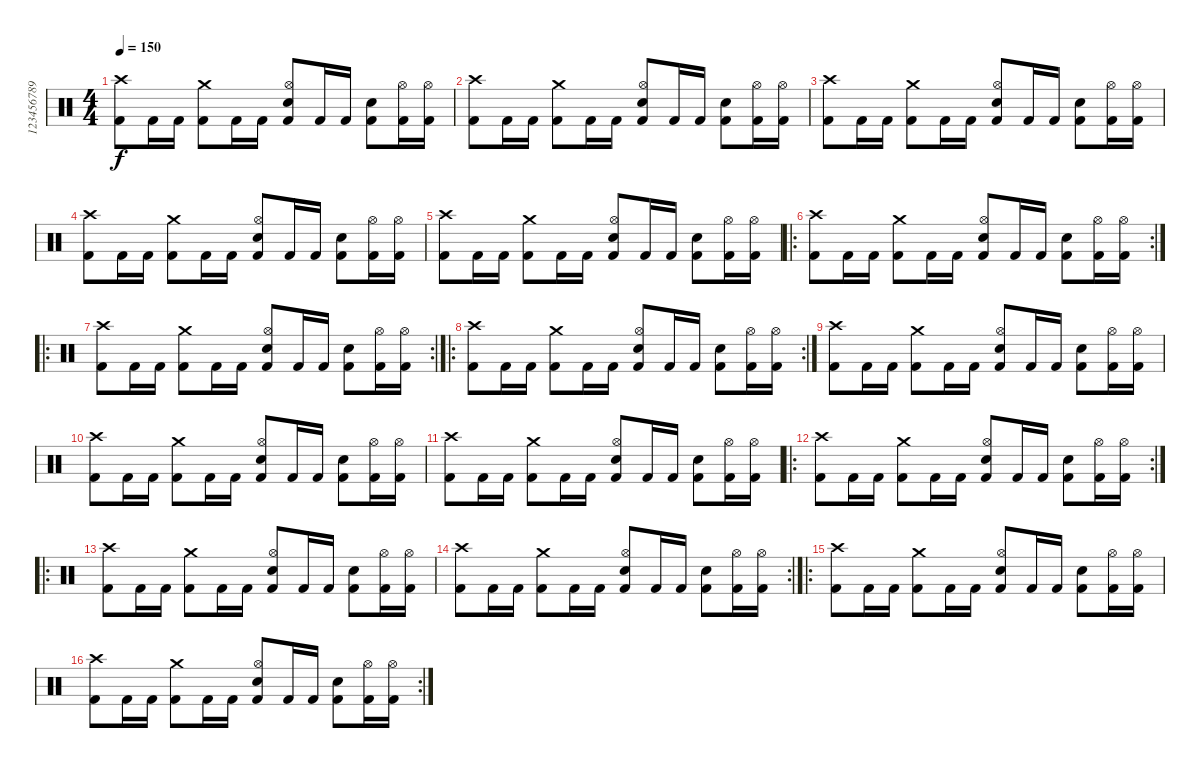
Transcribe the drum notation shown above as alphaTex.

\track ("123456789" "123456789") {instrument percussion}
\staff {score}
\articulation defaults
\ts (4 4)
\tempo 150
\clef neutral
\ks c
("Kick (hit) 2" "Crash high (hit)").8{dy f} "Kick (hit) 2".16 "Kick (hit) 2".16 ("Kick (hit) 2" "Crash medium (hit)").8 "Kick (hit) 2".16 "Kick (hit) 2".16 ("Kick (hit) 2" "Hi-Hat (open)" "Electric Snare (hit)").8 "Kick (hit) 2".16 "Kick (hit) 2".16 ("Kick (hit) 2" "Snare (hit) 2").8 ("Kick (hit) 2" "Hi-Hat (open)").16 ("Kick (hit) 2" "Hi-Hat (open)").16 |
("Kick (hit) 2" "Crash high (hit)").8 "Kick (hit) 2".16 "Kick (hit) 2".16 ("Kick (hit) 2" "Crash medium (hit)").8 "Kick (hit) 2".16 "Kick (hit) 2".16 ("Kick (hit) 2" "Hi-Hat (open)" "Electric Snare (hit)").8 "Kick (hit) 2".16 "Kick (hit) 2".16 ("Kick (hit) 2" "Snare (hit) 2").8 ("Kick (hit) 2" "Hi-Hat (open)").16 ("Kick (hit) 2" "Hi-Hat (open)").16 |
("Kick (hit) 2" "Crash high (hit)").8 "Kick (hit) 2".16 "Kick (hit) 2".16 ("Kick (hit) 2" "Crash medium (hit)").8 "Kick (hit) 2".16 "Kick (hit) 2".16 ("Kick (hit) 2" "Hi-Hat (open)" "Electric Snare (hit)").8 "Kick (hit) 2".16 "Kick (hit) 2".16 ("Kick (hit) 2" "Snare (hit) 2").8 ("Kick (hit) 2" "Hi-Hat (open)").16 ("Kick (hit) 2" "Hi-Hat (open)").16 |
("Kick (hit) 2" "Crash high (hit)").8 "Kick (hit) 2".16 "Kick (hit) 2".16 ("Kick (hit) 2" "Crash medium (hit)").8 "Kick (hit) 2".16 "Kick (hit) 2".16 ("Kick (hit) 2" "Hi-Hat (open)" "Electric Snare (hit)").8 "Kick (hit) 2".16 "Kick (hit) 2".16 ("Kick (hit) 2" "Snare (hit) 2").8 ("Kick (hit) 2" "Hi-Hat (open)").16 ("Kick (hit) 2" "Hi-Hat (open)").16 |
("Kick (hit) 2" "Crash high (hit)").8 "Kick (hit) 2".16 "Kick (hit) 2".16 ("Kick (hit) 2" "Crash medium (hit)").8 "Kick (hit) 2".16 "Kick (hit) 2".16 ("Kick (hit) 2" "Hi-Hat (open)" "Electric Snare (hit)").8 "Kick (hit) 2".16 "Kick (hit) 2".16 ("Kick (hit) 2" "Snare (hit) 2").8 ("Kick (hit) 2" "Hi-Hat (open)").16 ("Kick (hit) 2" "Hi-Hat (open)").16 |
\ro
\rc 2
("Kick (hit) 2" "Crash high (hit)").8 "Kick (hit) 2".16 "Kick (hit) 2".16 ("Kick (hit) 2" "Crash medium (hit)").8 "Kick (hit) 2".16 "Kick (hit) 2".16 ("Kick (hit) 2" "Hi-Hat (open)" "Electric Snare (hit)").8 "Kick (hit) 2".16 "Kick (hit) 2".16 ("Kick (hit) 2" "Snare (hit) 2").8 ("Kick (hit) 2" "Hi-Hat (open)").16 ("Kick (hit) 2" "Hi-Hat (open)").16 |
\ro
\rc 2
("Kick (hit) 2" "Crash high (hit)").8 "Kick (hit) 2".16 "Kick (hit) 2".16 ("Kick (hit) 2" "Crash medium (hit)").8 "Kick (hit) 2".16 "Kick (hit) 2".16 ("Kick (hit) 2" "Hi-Hat (open)" "Electric Snare (hit)").8 "Kick (hit) 2".16 "Kick (hit) 2".16 ("Kick (hit) 2" "Snare (hit) 2").8 ("Kick (hit) 2" "Hi-Hat (open)").16 ("Kick (hit) 2" "Hi-Hat (open)").16 |
\ro
\rc 2
("Kick (hit) 2" "Crash high (hit)").8 "Kick (hit) 2".16 "Kick (hit) 2".16 ("Kick (hit) 2" "Crash medium (hit)").8 "Kick (hit) 2".16 "Kick (hit) 2".16 ("Kick (hit) 2" "Hi-Hat (open)" "Electric Snare (hit)").8 "Kick (hit) 2".16 "Kick (hit) 2".16 ("Kick (hit) 2" "Snare (hit) 2").8 ("Kick (hit) 2" "Hi-Hat (open)").16 ("Kick (hit) 2" "Hi-Hat (open)").16 |
("Kick (hit) 2" "Crash high (hit)").8 "Kick (hit) 2".16 "Kick (hit) 2".16 ("Kick (hit) 2" "Crash medium (hit)").8 "Kick (hit) 2".16 "Kick (hit) 2".16 ("Kick (hit) 2" "Hi-Hat (open)" "Electric Snare (hit)").8 "Kick (hit) 2".16 "Kick (hit) 2".16 ("Kick (hit) 2" "Snare (hit) 2").8 ("Kick (hit) 2" "Hi-Hat (open)").16 ("Kick (hit) 2" "Hi-Hat (open)").16 |
("Kick (hit) 2" "Crash high (hit)").8 "Kick (hit) 2".16 "Kick (hit) 2".16 ("Kick (hit) 2" "Crash medium (hit)").8 "Kick (hit) 2".16 "Kick (hit) 2".16 ("Kick (hit) 2" "Hi-Hat (open)" "Electric Snare (hit)").8 "Kick (hit) 2".16 "Kick (hit) 2".16 ("Kick (hit) 2" "Snare (hit) 2").8 ("Kick (hit) 2" "Hi-Hat (open)").16 ("Kick (hit) 2" "Hi-Hat (open)").16 |
("Kick (hit) 2" "Crash high (hit)").8 "Kick (hit) 2".16 "Kick (hit) 2".16 ("Kick (hit) 2" "Crash medium (hit)").8 "Kick (hit) 2".16 "Kick (hit) 2".16 ("Kick (hit) 2" "Hi-Hat (open)" "Electric Snare (hit)").8 "Kick (hit) 2".16 "Kick (hit) 2".16 ("Kick (hit) 2" "Snare (hit) 2").8 ("Kick (hit) 2" "Hi-Hat (open)").16 ("Kick (hit) 2" "Hi-Hat (open)").16 |
\ro
\rc 2
("Kick (hit) 2" "Crash high (hit)").8 "Kick (hit) 2".16 "Kick (hit) 2".16 ("Kick (hit) 2" "Crash medium (hit)").8 "Kick (hit) 2".16 "Kick (hit) 2".16 ("Kick (hit) 2" "Hi-Hat (open)" "Electric Snare (hit)").8 "Kick (hit) 2".16 "Kick (hit) 2".16 ("Kick (hit) 2" "Snare (hit) 2").8 ("Kick (hit) 2" "Hi-Hat (open)").16 ("Kick (hit) 2" "Hi-Hat (open)").16 |
\ro
("Kick (hit) 2" "Crash high (hit)").8 "Kick (hit) 2".16 "Kick (hit) 2".16 ("Kick (hit) 2" "Crash medium (hit)").8 "Kick (hit) 2".16 "Kick (hit) 2".16 ("Kick (hit) 2" "Hi-Hat (open)" "Electric Snare (hit)").8 "Kick (hit) 2".16 "Kick (hit) 2".16 ("Kick (hit) 2" "Snare (hit) 2").8 ("Kick (hit) 2" "Hi-Hat (open)").16 ("Kick (hit) 2" "Hi-Hat (open)").16 |
\rc 2
("Kick (hit) 2" "Crash high (hit)").8 "Kick (hit) 2".16 "Kick (hit) 2".16 ("Kick (hit) 2" "Crash medium (hit)").8 "Kick (hit) 2".16 "Kick (hit) 2".16 ("Kick (hit) 2" "Hi-Hat (open)" "Electric Snare (hit)").8 "Kick (hit) 2".16 "Kick (hit) 2".16 ("Kick (hit) 2" "Snare (hit) 2").8 ("Kick (hit) 2" "Hi-Hat (open)").16 ("Kick (hit) 2" "Hi-Hat (open)").16 |
\ro
("Kick (hit) 2" "Crash high (hit)").8 "Kick (hit) 2".16 "Kick (hit) 2".16 ("Kick (hit) 2" "Crash medium (hit)").8 "Kick (hit) 2".16 "Kick (hit) 2".16 ("Kick (hit) 2" "Hi-Hat (open)" "Electric Snare (hit)").8 "Kick (hit) 2".16 "Kick (hit) 2".16 ("Kick (hit) 2" "Snare (hit) 2").8 ("Kick (hit) 2" "Hi-Hat (open)").16 ("Kick (hit) 2" "Hi-Hat (open)").16 |
\rc 2
("Kick (hit) 2" "Crash high (hit)").8 "Kick (hit) 2".16 "Kick (hit) 2".16 ("Kick (hit) 2" "Crash medium (hit)").8 "Kick (hit) 2".16 "Kick (hit) 2".16 ("Kick (hit) 2" "Hi-Hat (open)" "Electric Snare (hit)").8 "Kick (hit) 2".16 "Kick (hit) 2".16 ("Kick (hit) 2" "Snare (hit) 2").8 ("Kick (hit) 2" "Hi-Hat (open)").16 ("Kick (hit) 2" "Hi-Hat (open)").16
